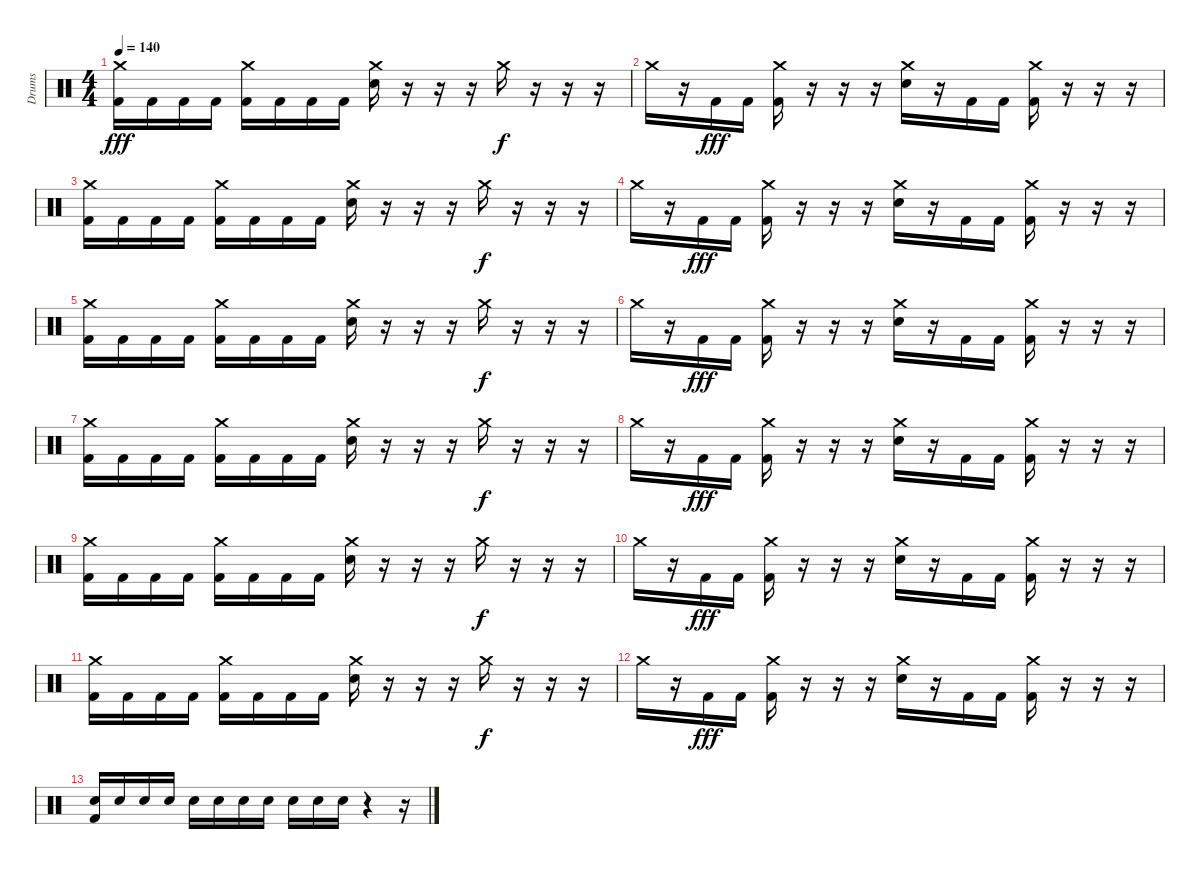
\track ("Drums" "Drums") {instrument percussion}
\staff {score}
\articulation defaults
\ts (4 4)
\tempo 140
\clef neutral
\ks c
("Crash medium (hit)" "Kick (hit) 2").16{dy fff} "Kick (hit) 2".16 "Kick (hit) 2".16 "Kick (hit) 2".16 ("Crash medium (hit)" "Kick (hit) 2").16 "Kick (hit) 2".16 "Kick (hit) 2".16 "Kick (hit) 2".16 ("Crash medium (hit)" "Electric Snare (hit)").16 r.16 r.16 r.16 "Crash medium (hit)".16{dy f} r.16 r.16 r.16 |
"Crash medium (hit)".16 r.16 "Kick (hit) 2".16{dy fff} "Kick (hit) 2".16 ("Crash medium (hit)" "Kick (hit) 2").16 r.16 r.16 r.16 ("Crash medium (hit)" "Electric Snare (hit)").16 r.16 "Kick (hit) 2".16 "Kick (hit) 2".16 ("Crash medium (hit)" "Kick (hit) 2").16 r.16 r.16 r.16 |
("Crash medium (hit)" "Kick (hit) 2").16 "Kick (hit) 2".16 "Kick (hit) 2".16 "Kick (hit) 2".16 ("Crash medium (hit)" "Kick (hit) 2").16 "Kick (hit) 2".16 "Kick (hit) 2".16 "Kick (hit) 2".16 ("Crash medium (hit)" "Electric Snare (hit)").16 r.16 r.16 r.16 "Crash medium (hit)".16{dy f} r.16 r.16 r.16 |
"Crash medium (hit)".16 r.16 "Kick (hit) 2".16{dy fff} "Kick (hit) 2".16 ("Crash medium (hit)" "Kick (hit) 2").16 r.16 r.16 r.16 ("Crash medium (hit)" "Electric Snare (hit)").16 r.16 "Kick (hit) 2".16 "Kick (hit) 2".16 ("Crash medium (hit)" "Kick (hit) 2").16 r.16 r.16 r.16 |
("Crash medium (hit)" "Kick (hit) 2").16 "Kick (hit) 2".16 "Kick (hit) 2".16 "Kick (hit) 2".16 ("Crash medium (hit)" "Kick (hit) 2").16 "Kick (hit) 2".16 "Kick (hit) 2".16 "Kick (hit) 2".16 ("Crash medium (hit)" "Electric Snare (hit)").16 r.16 r.16 r.16 "Crash medium (hit)".16{dy f} r.16 r.16 r.16 |
"Crash medium (hit)".16 r.16 "Kick (hit) 2".16{dy fff} "Kick (hit) 2".16 ("Crash medium (hit)" "Kick (hit) 2").16 r.16 r.16 r.16 ("Crash medium (hit)" "Electric Snare (hit)").16 r.16 "Kick (hit) 2".16 "Kick (hit) 2".16 ("Crash medium (hit)" "Kick (hit) 2").16 r.16 r.16 r.16 |
("Crash medium (hit)" "Kick (hit) 2").16 "Kick (hit) 2".16 "Kick (hit) 2".16 "Kick (hit) 2".16 ("Crash medium (hit)" "Kick (hit) 2").16 "Kick (hit) 2".16 "Kick (hit) 2".16 "Kick (hit) 2".16 ("Crash medium (hit)" "Electric Snare (hit)").16 r.16 r.16 r.16 "Crash medium (hit)".16{dy f} r.16 r.16 r.16 |
"Crash medium (hit)".16 r.16 "Kick (hit) 2".16{dy fff} "Kick (hit) 2".16 ("Crash medium (hit)" "Kick (hit) 2").16 r.16 r.16 r.16 ("Crash medium (hit)" "Electric Snare (hit)").16 r.16 "Kick (hit) 2".16 "Kick (hit) 2".16 ("Crash medium (hit)" "Kick (hit) 2").16 r.16 r.16 r.16 |
("Crash medium (hit)" "Kick (hit) 2").16 "Kick (hit) 2".16 "Kick (hit) 2".16 "Kick (hit) 2".16 ("Crash medium (hit)" "Kick (hit) 2").16 "Kick (hit) 2".16 "Kick (hit) 2".16 "Kick (hit) 2".16 ("Crash medium (hit)" "Electric Snare (hit)").16 r.16 r.16 r.16 "Crash medium (hit)".16{dy f} r.16 r.16 r.16 |
"Crash medium (hit)".16 r.16 "Kick (hit) 2".16{dy fff} "Kick (hit) 2".16 ("Crash medium (hit)" "Kick (hit) 2").16 r.16 r.16 r.16 ("Crash medium (hit)" "Electric Snare (hit)").16 r.16 "Kick (hit) 2".16 "Kick (hit) 2".16 ("Crash medium (hit)" "Kick (hit) 2").16 r.16 r.16 r.16 |
("Crash medium (hit)" "Kick (hit) 2").16 "Kick (hit) 2".16 "Kick (hit) 2".16 "Kick (hit) 2".16 ("Crash medium (hit)" "Kick (hit) 2").16 "Kick (hit) 2".16 "Kick (hit) 2".16 "Kick (hit) 2".16 ("Crash medium (hit)" "Electric Snare (hit)").16 r.16 r.16 r.16 "Crash medium (hit)".16{dy f} r.16 r.16 r.16 |
"Crash medium (hit)".16 r.16 "Kick (hit) 2".16{dy fff} "Kick (hit) 2".16 ("Crash medium (hit)" "Kick (hit) 2").16 r.16 r.16 r.16 ("Crash medium (hit)" "Electric Snare (hit)").16 r.16 "Kick (hit) 2".16 "Kick (hit) 2".16 ("Crash medium (hit)" "Kick (hit) 2").16 r.16 r.16 r.16 |
("Electric Snare (hit)" "Kick (hit) 2").16 "Electric Snare (hit)".16 "Electric Snare (hit)".16 "Electric Snare (hit)".16 "Electric Snare (hit)".16 "Electric Snare (hit)".16 "Electric Snare (hit)".16 "Electric Snare (hit)".16 "Electric Snare (hit)".16 "Electric Snare (hit)".16 "Electric Snare (hit)".16 r.4 r.16
